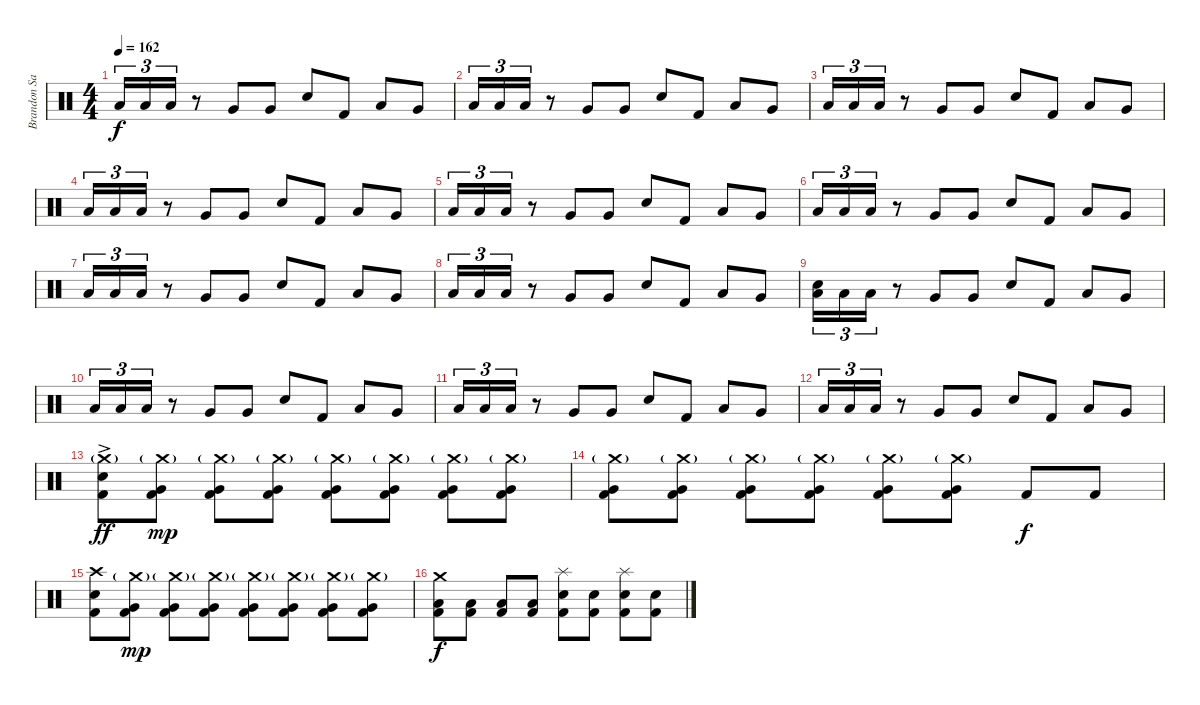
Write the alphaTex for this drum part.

\track ("Brandon Saller" "Brandon Sa") {instrument percussion}
\staff {score}
\articulation defaults
\ts (4 4)
\tempo 162
\clef neutral
\ks c "Low Floor Tom (hit)".16{tu (3 2) dy f} "Low Floor Tom (hit)".16{tu (3 2)} "Low Floor Tom (hit)".16{tu (3 2)}
r.8 "Very Low Tom (hit)".8 "Very Low Tom (hit)".8 "Electric Snare (hit)".8 "Kick (hit) 2".8 "Low Tom (hit)".8 "Very Low Tom (hit)".8 |
"Low Floor Tom (hit)".16{tu (3 2)} "Low Floor Tom (hit)".16{tu (3 2)} "Low Floor Tom (hit)".16{tu (3 2)} r.8 "Very Low Tom (hit)".8 "Very Low Tom (hit)".8 "Electric Snare (hit)".8 "Kick (hit) 2".8 "Low Tom (hit)".8 "Very Low Tom (hit)".8 |
"Low Floor Tom (hit)".16{tu (3 2)} "Low Floor Tom (hit)".16{tu (3 2)} "Low Floor Tom (hit)".16{tu (3 2)} r.8 "Very Low Tom (hit)".8 "Very Low Tom (hit)".8 "Electric Snare (hit)".8 "Kick (hit) 2".8 "Low Tom (hit)".8 "Very Low Tom (hit)".8 |
"Low Floor Tom (hit)".16{tu (3 2)} "Low Floor Tom (hit)".16{tu (3 2)} "Low Floor Tom (hit)".16{tu (3 2)} r.8 "Very Low Tom (hit)".8 "Very Low Tom (hit)".8 "Electric Snare (hit)".8 "Kick (hit) 2".8 "Low Tom (hit)".8 "Very Low Tom (hit)".8 |
"Low Floor Tom (hit)".16{tu (3 2)} "Low Floor Tom (hit)".16{tu (3 2)} "Low Floor Tom (hit)".16{tu (3 2)} r.8 "Very Low Tom (hit)".8 "Very Low Tom (hit)".8 "Electric Snare (hit)".8 "Kick (hit) 2".8 "Low Tom (hit)".8 "Very Low Tom (hit)".8 |
"Low Floor Tom (hit)".16{tu (3 2)} "Low Floor Tom (hit)".16{tu (3 2)} "Low Floor Tom (hit)".16{tu (3 2)} r.8 "Very Low Tom (hit)".8 "Very Low Tom (hit)".8 "Electric Snare (hit)".8 "Kick (hit) 2".8 "Low Tom (hit)".8 "Very Low Tom (hit)".8 |
"Low Floor Tom (hit)".16{tu (3 2)} "Low Floor Tom (hit)".16{tu (3 2)} "Low Floor Tom (hit)".16{tu (3 2)} r.8 "Very Low Tom (hit)".8 "Very Low Tom (hit)".8 "Electric Snare (hit)".8 "Kick (hit) 2".8 "Low Tom (hit)".8 "Very Low Tom (hit)".8 |
"Low Floor Tom (hit)".16{tu (3 2)} "Low Floor Tom (hit)".16{tu (3 2)} "Low Floor Tom (hit)".16{tu (3 2)} r.8 "Very Low Tom (hit)".8 "Very Low Tom (hit)".8 "Electric Snare (hit)".8 "Kick (hit) 2".8 "Low Tom (hit)".8 "Very Low Tom (hit)".8 |
("Electric Snare (hit)" "Low Floor Tom (hit)").16{tu (3 2)} "Low Floor Tom (hit)".16{tu (3 2)} "Low Floor Tom (hit)".16{tu (3 2)} r.8 "Very Low Tom (hit)".8 "Very Low Tom (hit)".8 "Electric Snare (hit)".8 "Kick (hit) 2".8 "Low Tom (hit)".8 "Very Low Tom (hit)".8 |
"Low Floor Tom (hit)".16{tu (3 2)} "Low Floor Tom (hit)".16{tu (3 2)} "Low Floor Tom (hit)".16{tu (3 2)} r.8 "Very Low Tom (hit)".8 "Very Low Tom (hit)".8 "Electric Snare (hit)".8 "Kick (hit) 2".8 "Low Tom (hit)".8 "Very Low Tom (hit)".8 |
"Low Floor Tom (hit)".16{tu (3 2)} "Low Floor Tom (hit)".16{tu (3 2)} "Low Floor Tom (hit)".16{tu (3 2)} r.8 "Very Low Tom (hit)".8 "Very Low Tom (hit)".8 "Electric Snare (hit)".8 "Kick (hit) 2".8 "Low Tom (hit)".8 "Very Low Tom (hit)".8 |
"Low Floor Tom (hit)".16{tu (3 2)} "Low Floor Tom (hit)".16{tu (3 2)} "Low Floor Tom (hit)".16{tu (3 2)} r.8 "Very Low Tom (hit)".8 "Very Low Tom (hit)".8 "Electric Snare (hit)".8 "Kick (hit) 2".8 "Low Tom (hit)".8 "Very Low Tom (hit)".8{volume 6} |
("Crash medium (hit)"{g} "Electric Snare (hit)"{ac} "Kick (hit) 2").8{dy ff volume 16} ("Crash medium (hit)"{g} "Very Low Tom (hit)" "Kick (hit) 2").8{dy mp} ("Crash medium (hit)"{g} "Very Low Tom (hit)" "Kick (hit) 2").8 ("Crash medium (hit)"{g} "Very Low Tom (hit)" "Kick (hit) 2").8 ("Crash medium (hit)"{g} "Very Low Tom (hit)" "Kick (hit) 2").8 ("Crash medium (hit)"{g} "Very Low Tom (hit)" "Kick (hit) 2").8 ("Crash medium (hit)"{g} "Very Low Tom (hit)" "Kick (hit) 2").8 ("Crash medium (hit)"{g} "Very Low Tom (hit)" "Kick (hit) 2").8 |
("Crash medium (hit)"{g} "Very Low Tom (hit)" "Kick (hit) 2").8 ("Crash medium (hit)"{g} "Very Low Tom (hit)" "Kick (hit) 2").8 ("Crash medium (hit)"{g} "Very Low Tom (hit)" "Kick (hit) 2").8 ("Crash medium (hit)"{g} "Very Low Tom (hit)" "Kick (hit) 2").8 ("Crash medium (hit)"{g} "Very Low Tom (hit)" "Kick (hit) 2").8 ("Crash medium (hit)"{g} "Very Low Tom (hit)" "Kick (hit) 2").8 "Kick (hit) 2".8{dy f} "Kick (hit) 2".8 |
("Crash high (hit)" "Electric Snare (hit)" "Kick (hit) 2").8 ("Crash medium (hit)"{g} "Very Low Tom (hit)" "Kick (hit) 2").8{dy mp} ("Crash medium (hit)"{g} "Very Low Tom (hit)" "Kick (hit) 2").8 ("Crash medium (hit)"{g} "Very Low Tom (hit)" "Kick (hit) 2").8 ("Crash medium (hit)"{g} "Very Low Tom (hit)" "Kick (hit) 2").8 ("Crash medium (hit)"{g} "Very Low Tom (hit)" "Kick (hit) 2").8 ("Crash medium (hit)"{g} "Very Low Tom (hit)" "Kick (hit) 2").8 ("Crash medium (hit)"{g} "Very Low Tom (hit)" "Kick (hit) 2").8 |
("Crash medium (hit)" "Low Floor Tom (hit)" "Kick (hit) 2").8{dy f} ("Low Floor Tom (hit)" "Kick (hit) 2").8 ("Low Floor Tom (hit)" "Kick (hit) 2").8 ("Low Floor Tom (hit)" "Kick (hit) 2").8 ("Splash (hit)" "Electric Snare (hit)" "Kick (hit) 2").8 ("Electric Snare (hit)" "Kick (hit) 2").8 ("Splash (hit)" "Electric Snare (hit)" "Kick (hit) 2").8 ("Electric Snare (hit)" "Kick (hit) 2").8
